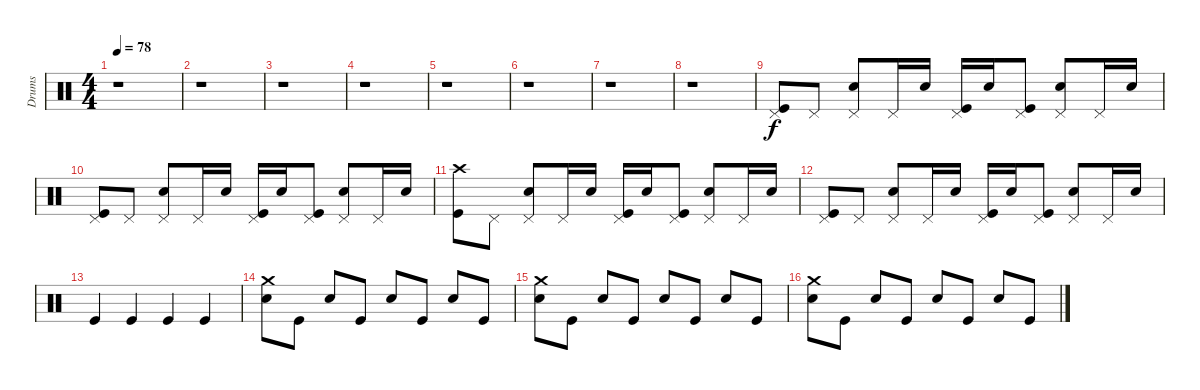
\track ("Drums" "Drums") {instrument percussion}
\staff {score}
\articulation defaults
\ts (4 4)
\tempo 78
\clef neutral
\ks c
r.1{dy f} |
r.1 |
r.1 |
r.1 |
r.1 |
r.1 |
r.1 |
r.1 |
("Pedal Hi-Hat (hit)" "Kick (hit)").8 "Pedal Hi-Hat (hit)".8 ("Pedal Hi-Hat (hit)" "Electric Snare (hit)").8 "Pedal Hi-Hat (hit)".16 "Electric Snare (hit)".16 ("Pedal Hi-Hat (hit)" "Kick (hit)").16 "Electric Snare (hit)".16 ("Pedal Hi-Hat (hit)" "Kick (hit)").8 ("Pedal Hi-Hat (hit)" "Electric Snare (hit)").8 "Pedal Hi-Hat (hit)".16 "Electric Snare (hit)".16 |
("Pedal Hi-Hat (hit)" "Kick (hit)").8 "Pedal Hi-Hat (hit)".8 ("Pedal Hi-Hat (hit)" "Electric Snare (hit)").8 "Pedal Hi-Hat (hit)".16 "Electric Snare (hit)".16 ("Pedal Hi-Hat (hit)" "Kick (hit)").16 "Electric Snare (hit)".16 ("Pedal Hi-Hat (hit)" "Kick (hit)").8 ("Pedal Hi-Hat (hit)" "Electric Snare (hit)").8 "Pedal Hi-Hat (hit)".16 "Electric Snare (hit)".16 |
("Crash high (hit)" "Kick (hit)").8 "Pedal Hi-Hat (hit)".8 ("Pedal Hi-Hat (hit)" "Electric Snare (hit)").8 "Pedal Hi-Hat (hit)".16 "Electric Snare (hit)".16 ("Pedal Hi-Hat (hit)" "Kick (hit)").16 "Electric Snare (hit)".16 ("Pedal Hi-Hat (hit)" "Kick (hit)").8 ("Pedal Hi-Hat (hit)" "Electric Snare (hit)").8 "Pedal Hi-Hat (hit)".16 "Electric Snare (hit)".16 |
("Pedal Hi-Hat (hit)" "Kick (hit)").8 "Pedal Hi-Hat (hit)".8 ("Pedal Hi-Hat (hit)" "Electric Snare (hit)").8 "Pedal Hi-Hat (hit)".16 "Electric Snare (hit)".16 ("Pedal Hi-Hat (hit)" "Kick (hit)").16 "Electric Snare (hit)".16 ("Pedal Hi-Hat (hit)" "Kick (hit)").8 ("Pedal Hi-Hat (hit)" "Electric Snare (hit)").8 "Pedal Hi-Hat (hit)".16 "Electric Snare (hit)".16 |
"Kick (hit)".4 "Kick (hit)".4 "Kick (hit)".4 "Kick (hit)".4 |
("Crash medium (hit)" "Electric Snare (hit)").8 "Kick (hit)".8 "Electric Snare (hit)".8 "Kick (hit)".8 "Electric Snare (hit)".8 "Kick (hit)".8 "Electric Snare (hit)".8 "Kick (hit)".8 |
("Crash medium (hit)" "Electric Snare (hit)").8 "Kick (hit)".8 "Electric Snare (hit)".8 "Kick (hit)".8 "Electric Snare (hit)".8 "Kick (hit)".8 "Electric Snare (hit)".8 "Kick (hit)".8 |
("Crash medium (hit)" "Electric Snare (hit)").8 "Kick (hit)".8 "Electric Snare (hit)".8 "Kick (hit)".8 "Electric Snare (hit)".8 "Kick (hit)".8 "Electric Snare (hit)".8 "Kick (hit)".8
